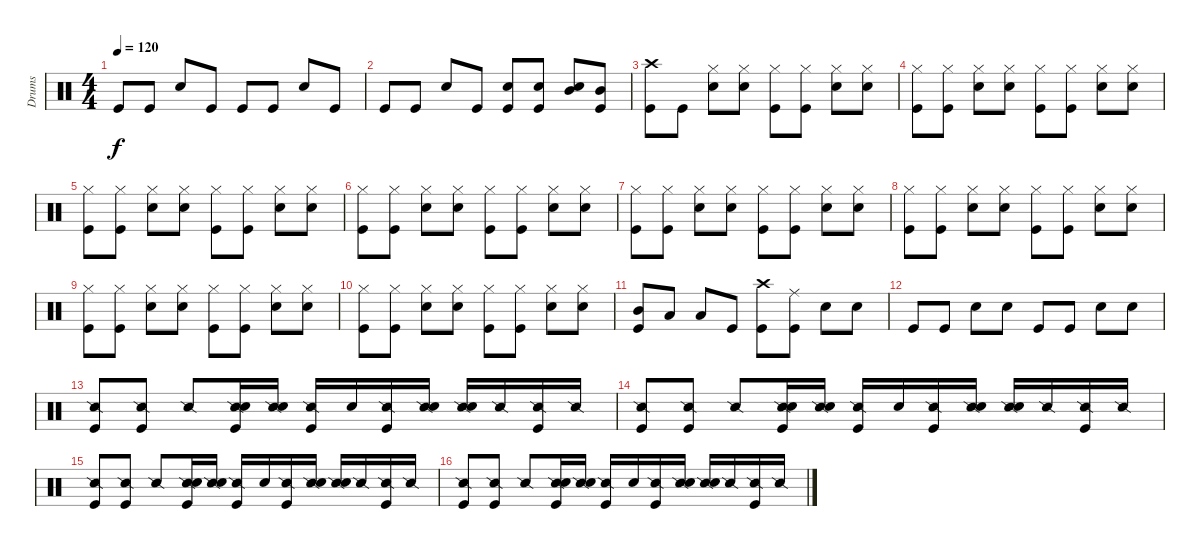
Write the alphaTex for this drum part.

\track ("Drums" "Drums") {instrument percussion}
\staff {score}
\articulation defaults
\ts (4 4)
\tempo 120
\clef neutral
\ks c "Kick (hit)".8{dy f} "Kick (hit)".8 "Snare (hit) 2".8 "Kick (hit)".8 "Kick (hit)".8 "Kick (hit)".8 "Snare (hit) 2".8 "Kick (hit)".8
|
"Kick (hit)".8 "Kick (hit)".8 "Snare (hit) 2".8 "Kick (hit)".8 ("Snare (hit) 2" "Kick (hit)").8 ("Snare (hit) 2" "Kick (hit)").8 ("Mid Tom (hit)" "Snare (hit) 2").8 ("Mid Tom (hit)" "Kick (hit)").8 |
("Crash high (hit)" "Kick (hit)").8 "Kick (hit)".8 ("Hi-Hat (closed)" "Snare (hit) 2").8 ("Hi-Hat (closed)" "Snare (hit) 2").8 ("Hi-Hat (closed)" "Kick (hit)").8 ("Hi-Hat (closed)" "Kick (hit)").8 ("Hi-Hat (closed)" "Snare (hit) 2").8 ("Hi-Hat (closed)" "Snare (hit) 2").8 |
("Hi-Hat (closed)" "Kick (hit)").8 ("Hi-Hat (closed)" "Kick (hit)").8 ("Hi-Hat (closed)" "Snare (hit) 2").8 ("Hi-Hat (closed)" "Snare (hit) 2").8 ("Hi-Hat (closed)" "Kick (hit)").8 ("Hi-Hat (closed)" "Kick (hit)").8 ("Hi-Hat (closed)" "Snare (hit) 2").8 ("Hi-Hat (closed)" "Snare (hit) 2").8 |
("Hi-Hat (closed)" "Kick (hit)").8 ("Hi-Hat (closed)" "Kick (hit)").8 ("Hi-Hat (closed)" "Snare (hit) 2").8 ("Hi-Hat (closed)" "Snare (hit) 2").8 ("Hi-Hat (closed)" "Kick (hit)").8 ("Hi-Hat (closed)" "Kick (hit)").8 ("Hi-Hat (closed)" "Snare (hit) 2").8 ("Hi-Hat (closed)" "Snare (hit) 2").8 |
("Hi-Hat (closed)" "Kick (hit)").8 ("Hi-Hat (closed)" "Kick (hit)").8 ("Hi-Hat (closed)" "Snare (hit) 2").8 ("Hi-Hat (closed)" "Snare (hit) 2").8 ("Hi-Hat (closed)" "Kick (hit)").8 ("Hi-Hat (closed)" "Kick (hit)").8 ("Hi-Hat (closed)" "Snare (hit) 2").8 ("Hi-Hat (closed)" "Snare (hit) 2").8 |
("Hi-Hat (closed)" "Kick (hit)").8 ("Hi-Hat (closed)" "Kick (hit)").8 ("Hi-Hat (closed)" "Snare (hit) 2").8 ("Hi-Hat (closed)" "Snare (hit) 2").8 ("Hi-Hat (closed)" "Kick (hit)").8 ("Hi-Hat (closed)" "Kick (hit)").8 ("Hi-Hat (closed)" "Snare (hit) 2").8 ("Hi-Hat (closed)" "Snare (hit) 2").8 |
("Hi-Hat (closed)" "Kick (hit)").8 ("Hi-Hat (closed)" "Kick (hit)").8 ("Hi-Hat (closed)" "Snare (hit) 2").8 ("Hi-Hat (closed)" "Snare (hit) 2").8 ("Hi-Hat (closed)" "Kick (hit)").8 ("Hi-Hat (closed)" "Kick (hit)").8 ("Hi-Hat (closed)" "Snare (hit) 2").8 ("Hi-Hat (closed)" "Snare (hit) 2").8 |
("Hi-Hat (closed)" "Kick (hit)").8 ("Hi-Hat (closed)" "Kick (hit)").8 ("Hi-Hat (closed)" "Snare (hit) 2").8 ("Hi-Hat (closed)" "Snare (hit) 2").8 ("Hi-Hat (closed)" "Kick (hit)").8 ("Hi-Hat (closed)" "Kick (hit)").8 ("Hi-Hat (closed)" "Snare (hit) 2").8 ("Hi-Hat (closed)" "Snare (hit) 2").8 |
("Hi-Hat (closed)" "Kick (hit)").8 ("Hi-Hat (closed)" "Kick (hit)").8 ("Hi-Hat (closed)" "Snare (hit) 2").8 ("Hi-Hat (closed)" "Snare (hit) 2").8 ("Hi-Hat (closed)" "Kick (hit)").8 ("Hi-Hat (closed)" "Kick (hit)").8 ("Hi-Hat (closed)" "Snare (hit) 2").8 ("Hi-Hat (closed)" "Snare (hit) 2").8 |
("Mid Tom (hit)" "Kick (hit)").8 "Low Floor Tom (hit)".8 "Low Floor Tom (hit)".8 "Kick (hit)".8 ("Crash high (hit)" "Kick (hit)").8 ("Ride (middle)" "Kick (hit)").8 "Snare (hit) 2".8 "Snare (hit) 2".8 |
"Kick (hit)".8 "Kick (hit)".8 "Snare (hit) 2".8 "Snare (hit) 2".8 "Kick (hit)".8 "Kick (hit)".8 "Snare (hit) 2".8 "Snare (hit) 2".8 |
("Snare (side stick) 2" "Kick (hit)").8 ("Snare (side stick) 2" "Kick (hit)").8 "Snare (side stick) 2".8 ("Snare (side stick) 2" "Snare (hit) 2" "Kick (hit)").16 ("Snare (side stick) 2" "Snare (hit) 2").16 ("Snare (side stick) 2" "Kick (hit)").16 "Snare (hit) 2".16 ("Snare (side stick) 2" "Kick (hit)").16 ("Snare (side stick) 2" "Snare (hit) 2").16 ("Snare (side stick) 2" "Snare (hit) 2").16 "Snare (side stick) 2".16 ("Snare (side stick) 2" "Kick (hit)").16 "Snare (side stick) 2".16 |
("Snare (side stick) 2" "Kick (hit)").8 ("Snare (side stick) 2" "Kick (hit)").8 "Snare (side stick) 2".8 ("Snare (side stick) 2" "Snare (hit) 2" "Kick (hit)").16 ("Snare (side stick) 2" "Snare (hit) 2").16 ("Snare (side stick) 2" "Kick (hit)").16 "Snare (hit) 2".16 ("Snare (side stick) 2" "Kick (hit)").16 ("Snare (side stick) 2" "Snare (hit) 2").16 ("Snare (side stick) 2" "Snare (hit) 2").16 "Snare (side stick) 2".16 ("Snare (side stick) 2" "Kick (hit)").16 "Snare (side stick) 2".16 |
("Snare (side stick) 2" "Kick (hit)").8 ("Snare (side stick) 2" "Kick (hit)").8 "Snare (side stick) 2".8 ("Snare (side stick) 2" "Snare (hit) 2" "Kick (hit)").16 ("Snare (side stick) 2" "Snare (hit) 2").16 ("Snare (side stick) 2" "Kick (hit)").16 "Snare (hit) 2".16 ("Snare (side stick) 2" "Kick (hit)").16 ("Snare (side stick) 2" "Snare (hit) 2").16 ("Snare (side stick) 2" "Snare (hit) 2").16 "Snare (side stick) 2".16 ("Snare (side stick) 2" "Kick (hit)").16 "Snare (side stick) 2".16 |
("Snare (side stick) 2" "Kick (hit)").8 ("Snare (side stick) 2" "Kick (hit)").8 "Snare (side stick) 2".8 ("Snare (side stick) 2" "Snare (hit) 2" "Kick (hit)").16 ("Snare (side stick) 2" "Snare (hit) 2").16 ("Snare (side stick) 2" "Kick (hit)").16 "Snare (hit) 2".16 ("Snare (side stick) 2" "Kick (hit)").16 ("Snare (side stick) 2" "Snare (hit) 2").16 ("Snare (side stick) 2" "Snare (hit) 2").16 "Snare (side stick) 2".16 ("Snare (side stick) 2" "Kick (hit)").16 "Snare (side stick) 2".16
